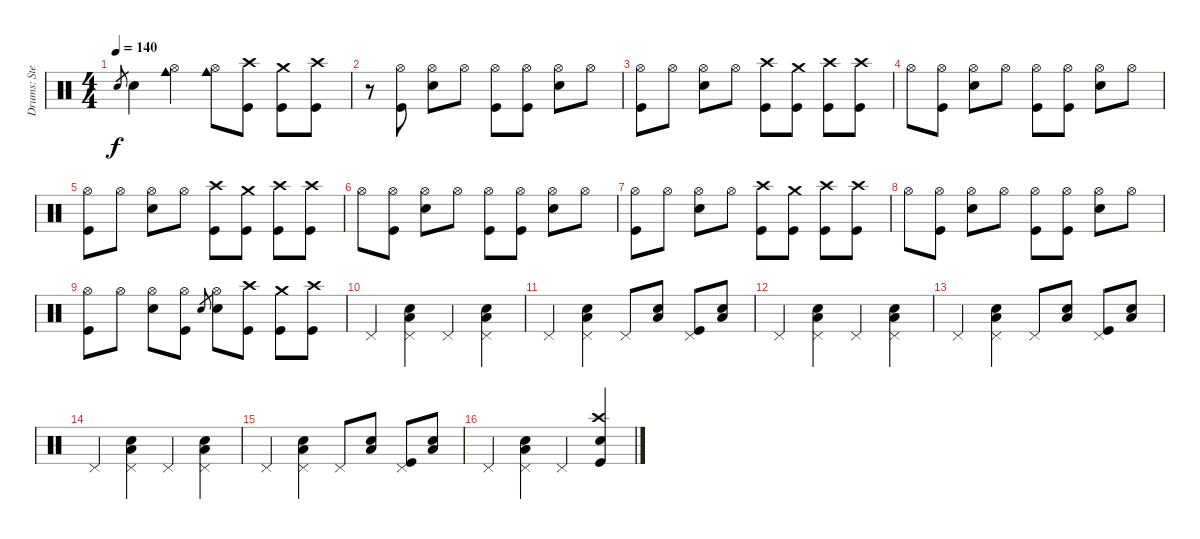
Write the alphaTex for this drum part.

\track ("Drums: Steven Adler" "Drums: Ste") {instrument percussion}
\staff {score}
\articulation defaults
\ts (4 4)
\tempo 140
\clef neutral
\ks c "Electric Snare (hit)".8{gr dy f} "Electric Snare (hit)".4
("Hi-Hat (open)" "Cowbell medium (hit)").4 ("Hi-Hat (open)" "Cowbell medium (hit)").8 ("Crash high (hit)" "Kick (hit)").8 ("Crash medium (hit)" "Kick (hit)").8 ("Crash high (hit)" "Kick (hit)").8 |
r.8 ("Hi-Hat (open)" "Kick (hit)").8 ("Hi-Hat (open)" "Electric Snare (hit)").8 "Hi-Hat (open)".8 ("Hi-Hat (open)" "Kick (hit)").8 ("Hi-Hat (open)" "Kick (hit)").8 ("Hi-Hat (open)" "Electric Snare (hit)").8 "Hi-Hat (open)".8 |
("Hi-Hat (open)" "Kick (hit)").8 "Hi-Hat (open)".8 ("Hi-Hat (open)" "Electric Snare (hit)").8 "Hi-Hat (open)".8 ("Crash high (hit)" "Kick (hit)").8 ("Crash medium (hit)" "Kick (hit)").8 ("Crash high (hit)" "Kick (hit)").8 ("Crash high (hit)" "Kick (hit)").8 |
"Hi-Hat (open)".8 ("Hi-Hat (open)" "Kick (hit)").8 ("Hi-Hat (open)" "Electric Snare (hit)").8 "Hi-Hat (open)".8 ("Hi-Hat (open)" "Kick (hit)").8 ("Hi-Hat (open)" "Kick (hit)").8 ("Hi-Hat (open)" "Electric Snare (hit)").8 "Hi-Hat (open)".8 |
("Hi-Hat (open)" "Kick (hit)").8 "Hi-Hat (open)".8 ("Hi-Hat (open)" "Electric Snare (hit)").8 "Hi-Hat (open)".8 ("Crash high (hit)" "Kick (hit)").8 ("Crash medium (hit)" "Kick (hit)").8 ("Crash high (hit)" "Kick (hit)").8 ("Crash high (hit)" "Kick (hit)").8 |
"Hi-Hat (open)".8 ("Hi-Hat (open)" "Kick (hit)").8 ("Hi-Hat (open)" "Electric Snare (hit)").8 "Hi-Hat (open)".8 ("Hi-Hat (open)" "Kick (hit)").8 ("Hi-Hat (open)" "Kick (hit)").8 ("Hi-Hat (open)" "Electric Snare (hit)").8 "Hi-Hat (open)".8 |
("Hi-Hat (open)" "Kick (hit)").8 "Hi-Hat (open)".8 ("Hi-Hat (open)" "Electric Snare (hit)").8 "Hi-Hat (open)".8 ("Crash high (hit)" "Kick (hit)").8 ("Crash medium (hit)" "Kick (hit)").8 ("Crash high (hit)" "Kick (hit)").8 ("Crash high (hit)" "Kick (hit)").8 |
"Hi-Hat (open)".8 ("Hi-Hat (open)" "Kick (hit)").8 ("Hi-Hat (open)" "Electric Snare (hit)").8 "Hi-Hat (open)".8 ("Hi-Hat (open)" "Kick (hit)").8 ("Hi-Hat (open)" "Kick (hit)").8 ("Hi-Hat (open)" "Electric Snare (hit)").8 "Hi-Hat (open)".8 |
("Hi-Hat (open)" "Kick (hit)").8 "Hi-Hat (open)".8 ("Hi-Hat (open)" "Electric Snare (hit)").8 ("Hi-Hat (open)" "Kick (hit)").8 "Electric Snare (hit)".8{gr} ("Hi-Hat (open)" "Electric Snare (hit)").8 ("Crash high (hit)" "Kick (hit)").8 ("Crash medium (hit)" "Kick (hit)").8 ("Crash high (hit)" "Kick (hit)").8 |
"Pedal Hi-Hat (hit)".4 ("Pedal Hi-Hat (hit)" "Electric Snare (hit)" "Low Floor Tom (hit)").4 "Pedal Hi-Hat (hit)".4 ("Pedal Hi-Hat (hit)" "Electric Snare (hit)" "Low Floor Tom (hit)").4 |
"Pedal Hi-Hat (hit)".4 ("Pedal Hi-Hat (hit)" "Electric Snare (hit)" "Low Floor Tom (hit)").4 "Pedal Hi-Hat (hit)".8 ("Electric Snare (hit)" "Low Floor Tom (hit)").8 ("Pedal Hi-Hat (hit)" "Kick (hit)").8 ("Electric Snare (hit)" "Low Floor Tom (hit)").8 |
"Pedal Hi-Hat (hit)".4 ("Pedal Hi-Hat (hit)" "Electric Snare (hit)" "Low Floor Tom (hit)").4 "Pedal Hi-Hat (hit)".4 ("Pedal Hi-Hat (hit)" "Electric Snare (hit)" "Low Floor Tom (hit)").4 |
"Pedal Hi-Hat (hit)".4 ("Pedal Hi-Hat (hit)" "Electric Snare (hit)" "Low Floor Tom (hit)").4 "Pedal Hi-Hat (hit)".8 ("Electric Snare (hit)" "Low Floor Tom (hit)").8 ("Pedal Hi-Hat (hit)" "Kick (hit)").8 ("Electric Snare (hit)" "Low Floor Tom (hit)").8 |
"Pedal Hi-Hat (hit)".4 ("Pedal Hi-Hat (hit)" "Electric Snare (hit)" "Low Floor Tom (hit)").4 "Pedal Hi-Hat (hit)".4 ("Pedal Hi-Hat (hit)" "Electric Snare (hit)" "Low Floor Tom (hit)").4 |
"Pedal Hi-Hat (hit)".4 ("Pedal Hi-Hat (hit)" "Electric Snare (hit)" "Low Floor Tom (hit)").4 "Pedal Hi-Hat (hit)".8 ("Electric Snare (hit)" "Low Floor Tom (hit)").8 ("Pedal Hi-Hat (hit)" "Kick (hit)").8 ("Electric Snare (hit)" "Low Floor Tom (hit)").8 |
"Pedal Hi-Hat (hit)".4 ("Pedal Hi-Hat (hit)" "Electric Snare (hit)" "Low Floor Tom (hit)").4 "Pedal Hi-Hat (hit)".4 ("Crash high (hit)" "Electric Snare (hit)" "Kick (hit)").4
